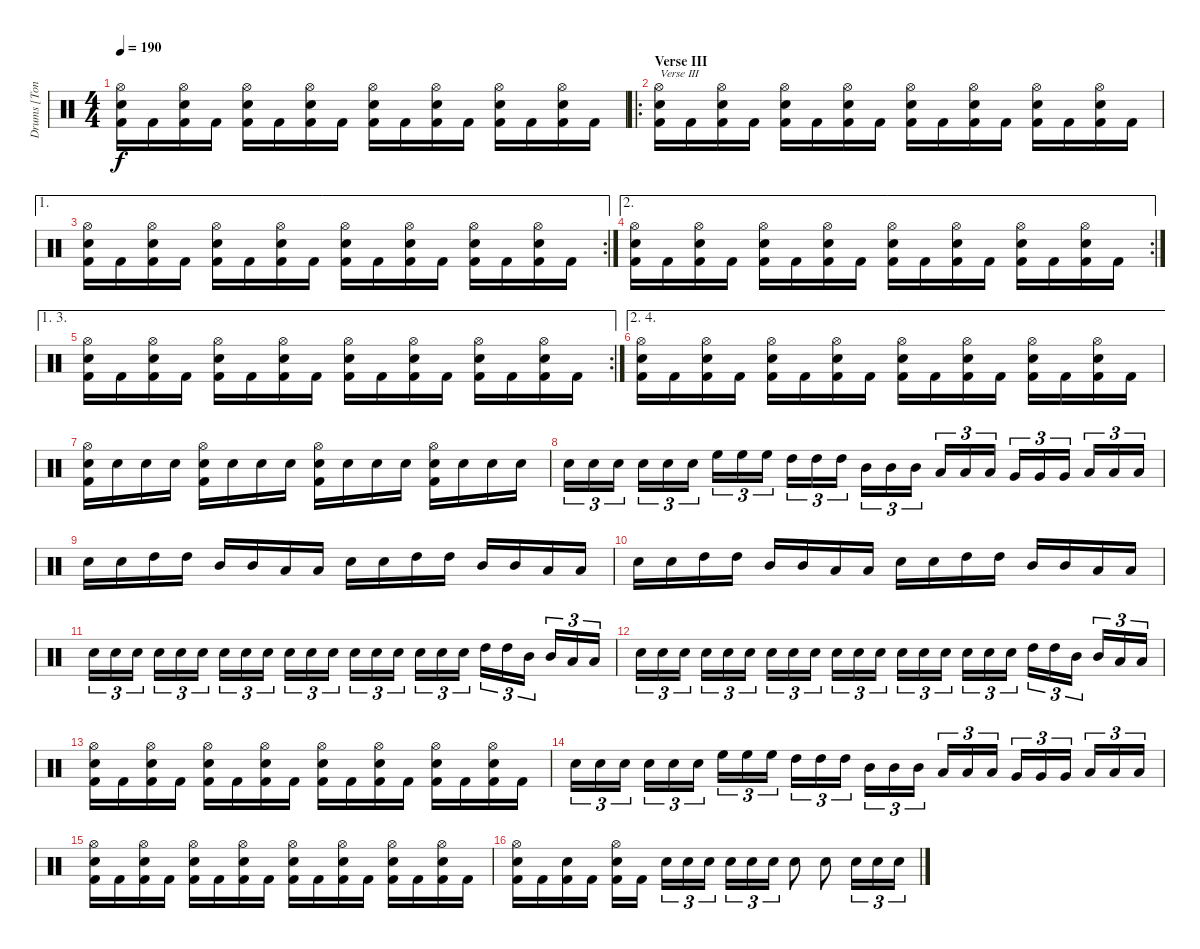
\track ("Drums [Tony Laureano]" "Drums [Ton") {instrument percussion}
\staff {score}
\articulation defaults
\ts (4 4)
\tempo 190
\clef neutral
\ks c
("Hi-Hat (open)" "Electric Snare (hit)" "Kick (hit) 2").16{dy f} "Kick (hit) 2".16 ("Hi-Hat (open)" "Electric Snare (hit)" "Kick (hit) 2").16 "Kick (hit) 2".16 ("Hi-Hat (open)" "Electric Snare (hit)" "Kick (hit) 2").16 "Kick (hit) 2".16 ("Hi-Hat (open)" "Electric Snare (hit)" "Kick (hit) 2").16 "Kick (hit) 2".16 ("Hi-Hat (open)" "Electric Snare (hit)" "Kick (hit) 2").16 "Kick (hit) 2".16 ("Hi-Hat (open)" "Electric Snare (hit)" "Kick (hit) 2").16 "Kick (hit) 2".16 ("Hi-Hat (open)" "Electric Snare (hit)" "Kick (hit) 2").16 "Kick (hit) 2".16 ("Hi-Hat (open)" "Electric Snare (hit)" "Kick (hit) 2").16 "Kick (hit) 2".16 |
\ro
\section ("" "Verse III")
("Hi-Hat (open)" "Electric Snare (hit)" "Kick (hit) 2").16{txt "Verse III"} "Kick (hit) 2".16 ("Hi-Hat (open)" "Electric Snare (hit)" "Kick (hit) 2").16 "Kick (hit) 2".16 ("Hi-Hat (open)" "Electric Snare (hit)" "Kick (hit) 2").16 "Kick (hit) 2".16 ("Hi-Hat (open)" "Electric Snare (hit)" "Kick (hit) 2").16 "Kick (hit) 2".16 ("Hi-Hat (open)" "Electric Snare (hit)" "Kick (hit) 2").16 "Kick (hit) 2".16 ("Hi-Hat (open)" "Electric Snare (hit)" "Kick (hit) 2").16 "Kick (hit) 2".16 ("Hi-Hat (open)" "Electric Snare (hit)" "Kick (hit) 2").16 "Kick (hit) 2".16 ("Hi-Hat (open)" "Electric Snare (hit)" "Kick (hit) 2").16 "Kick (hit) 2".16 |
\ae 1
\rc 2
("Hi-Hat (open)" "Electric Snare (hit)" "Kick (hit) 2").16 "Kick (hit) 2".16 ("Hi-Hat (open)" "Electric Snare (hit)" "Kick (hit) 2").16 "Kick (hit) 2".16 ("Hi-Hat (open)" "Electric Snare (hit)" "Kick (hit) 2").16 "Kick (hit) 2".16 ("Hi-Hat (open)" "Electric Snare (hit)" "Kick (hit) 2").16 "Kick (hit) 2".16 ("Hi-Hat (open)" "Electric Snare (hit)" "Kick (hit) 2").16 "Kick (hit) 2".16 ("Hi-Hat (open)" "Electric Snare (hit)" "Kick (hit) 2").16 "Kick (hit) 2".16 ("Hi-Hat (open)" "Electric Snare (hit)" "Kick (hit) 2").16 "Kick (hit) 2".16 ("Hi-Hat (open)" "Electric Snare (hit)" "Kick (hit) 2").16 "Kick (hit) 2".16 |
\ae 2
\rc 2
("Hi-Hat (open)" "Electric Snare (hit)" "Kick (hit) 2").16 "Kick (hit) 2".16 ("Hi-Hat (open)" "Electric Snare (hit)" "Kick (hit) 2").16 "Kick (hit) 2".16 ("Hi-Hat (open)" "Electric Snare (hit)" "Kick (hit) 2").16 "Kick (hit) 2".16 ("Hi-Hat (open)" "Electric Snare (hit)" "Kick (hit) 2").16 "Kick (hit) 2".16 ("Hi-Hat (open)" "Electric Snare (hit)" "Kick (hit) 2").16 "Kick (hit) 2".16 ("Hi-Hat (open)" "Electric Snare (hit)" "Kick (hit) 2").16 "Kick (hit) 2".16 ("Hi-Hat (open)" "Electric Snare (hit)" "Kick (hit) 2").16 "Kick (hit) 2".16 ("Hi-Hat (open)" "Electric Snare (hit)" "Kick (hit) 2").16 "Kick (hit) 2".16 |
\ae (1 3)
\rc 2
("Hi-Hat (open)" "Electric Snare (hit)" "Kick (hit) 2").16 "Kick (hit) 2".16 ("Hi-Hat (open)" "Electric Snare (hit)" "Kick (hit) 2").16 "Kick (hit) 2".16 ("Hi-Hat (open)" "Electric Snare (hit)" "Kick (hit) 2").16 "Kick (hit) 2".16 ("Hi-Hat (open)" "Electric Snare (hit)" "Kick (hit) 2").16 "Kick (hit) 2".16 ("Hi-Hat (open)" "Electric Snare (hit)" "Kick (hit) 2").16 "Kick (hit) 2".16 ("Hi-Hat (open)" "Electric Snare (hit)" "Kick (hit) 2").16 "Kick (hit) 2".16 ("Hi-Hat (open)" "Electric Snare (hit)" "Kick (hit) 2").16 "Kick (hit) 2".16 ("Hi-Hat (open)" "Electric Snare (hit)" "Kick (hit) 2").16 "Kick (hit) 2".16 |
\ae (2 4)
("Hi-Hat (open)" "Electric Snare (hit)" "Kick (hit) 2").16 "Kick (hit) 2".16 ("Hi-Hat (open)" "Electric Snare (hit)" "Kick (hit) 2").16 "Kick (hit) 2".16 ("Hi-Hat (open)" "Electric Snare (hit)" "Kick (hit) 2").16 "Kick (hit) 2".16 ("Hi-Hat (open)" "Electric Snare (hit)" "Kick (hit) 2").16 "Kick (hit) 2".16 ("Hi-Hat (open)" "Electric Snare (hit)" "Kick (hit) 2").16 "Kick (hit) 2".16 ("Hi-Hat (open)" "Electric Snare (hit)" "Kick (hit) 2").16 "Kick (hit) 2".16 ("Hi-Hat (open)" "Electric Snare (hit)" "Kick (hit) 2").16 "Kick (hit) 2".16 ("Hi-Hat (open)" "Electric Snare (hit)" "Kick (hit) 2").16 "Kick (hit) 2".16 |
("Hi-Hat (open)" "Electric Snare (hit)" "Kick (hit) 2").16 "Electric Snare (hit)".16 "Electric Snare (hit)".16 "Electric Snare (hit)".16 ("Hi-Hat (open)" "Electric Snare (hit)" "Kick (hit) 2").16 "Electric Snare (hit)".16 "Electric Snare (hit)".16 "Electric Snare (hit)".16 ("Hi-Hat (open)" "Electric Snare (hit)" "Kick (hit) 2").16 "Electric Snare (hit)".16 "Electric Snare (hit)".16 "Electric Snare (hit)".16 ("Hi-Hat (open)" "Electric Snare (hit)" "Kick (hit) 2").16 "Electric Snare (hit)".16 "Electric Snare (hit)".16 "Electric Snare (hit)".16 |
"Electric Snare (hit)".16{tu (3 2)} "Electric Snare (hit)".16{tu (3 2)} "Electric Snare (hit)".16{tu (3 2)} "Electric Snare (hit)".16{tu (3 2)} "Electric Snare (hit)".16{tu (3 2)} "Electric Snare (hit)".16{tu (3 2)} "High Floor Tom (hit)".16{tu (3 2)} "High Floor Tom (hit)".16{tu (3 2)} "High Floor Tom (hit)".16{tu (3 2)} "High Tom (hit)".16{tu (3 2)} "High Tom (hit)".16{tu (3 2)} "High Tom (hit)".16{tu (3 2)} "Mid Tom (hit)".16{tu (3 2)} "Mid Tom (hit)".16{tu (3 2)} "Mid Tom (hit)".16{tu (3 2)} "Low Tom (hit)".16{tu (3 2)} "Low Tom (hit)".16{tu (3 2)} "Low Tom (hit)".16{tu (3 2)} "Very Low Tom (hit)".16{tu (3 2)} "Very Low Tom (hit)".16{tu (3 2)} "Very Low Tom (hit)".16{tu (3 2)} "Low Floor Tom (hit)".16{tu (3 2)} "Low Floor Tom (hit)".16{tu (3 2)} "Low Floor Tom (hit)".16{tu (3 2)} |
"Electric Snare (hit)".16 "Electric Snare (hit)".16 "High Tom (hit)".16 "High Tom (hit)".16 "Mid Tom (hit)".16 "Mid Tom (hit)".16 "Low Tom (hit)".16 "Low Tom (hit)".16 "Electric Snare (hit)".16 "Electric Snare (hit)".16 "High Tom (hit)".16 "High Tom (hit)".16 "Mid Tom (hit)".16 "Mid Tom (hit)".16 "Low Tom (hit)".16 "Low Tom (hit)".16 |
"Electric Snare (hit)".16 "Electric Snare (hit)".16 "High Tom (hit)".16 "High Tom (hit)".16 "Mid Tom (hit)".16 "Mid Tom (hit)".16 "Low Tom (hit)".16 "Low Tom (hit)".16 "Electric Snare (hit)".16 "Electric Snare (hit)".16 "High Tom (hit)".16 "High Tom (hit)".16 "Mid Tom (hit)".16 "Mid Tom (hit)".16 "Low Tom (hit)".16 "Low Tom (hit)".16 |
"Electric Snare (hit)".16{tu (3 2)} "Electric Snare (hit)".16{tu (3 2)} "Electric Snare (hit)".16{tu (3 2)} "Electric Snare (hit)".16{tu (3 2)} "Electric Snare (hit)".16{tu (3 2)} "Electric Snare (hit)".16{tu (3 2)} "Electric Snare (hit)".16{tu (3 2)} "Electric Snare (hit)".16{tu (3 2)} "Electric Snare (hit)".16{tu (3 2)} "Electric Snare (hit)".16{tu (3 2)} "Electric Snare (hit)".16{tu (3 2)} "Electric Snare (hit)".16{tu (3 2)} "Electric Snare (hit)".16{tu (3 2)} "Electric Snare (hit)".16{tu (3 2)} "Electric Snare (hit)".16{tu (3 2)} "Electric Snare (hit)".16{tu (3 2)} "Electric Snare (hit)".16{tu (3 2)} "Electric Snare (hit)".16{tu (3 2)} "High Tom (hit)".16{tu (3 2)} "High Tom (hit)".16{tu (3 2)} "Mid Tom (hit)".16{tu (3 2)} "Mid Tom (hit)".16{tu (3 2)} "Low Tom (hit)".16{tu (3 2)} "Low Tom (hit)".16{tu (3 2)} |
"Electric Snare (hit)".16{tu (3 2)} "Electric Snare (hit)".16{tu (3 2)} "Electric Snare (hit)".16{tu (3 2)} "Electric Snare (hit)".16{tu (3 2)} "Electric Snare (hit)".16{tu (3 2)} "Electric Snare (hit)".16{tu (3 2)} "Electric Snare (hit)".16{tu (3 2)} "Electric Snare (hit)".16{tu (3 2)} "Electric Snare (hit)".16{tu (3 2)} "Electric Snare (hit)".16{tu (3 2)} "Electric Snare (hit)".16{tu (3 2)} "Electric Snare (hit)".16{tu (3 2)} "Electric Snare (hit)".16{tu (3 2)} "Electric Snare (hit)".16{tu (3 2)} "Electric Snare (hit)".16{tu (3 2)} "Electric Snare (hit)".16{tu (3 2)} "Electric Snare (hit)".16{tu (3 2)} "Electric Snare (hit)".16{tu (3 2)} "High Tom (hit)".16{tu (3 2)} "High Tom (hit)".16{tu (3 2)} "Mid Tom (hit)".16{tu (3 2)} "Mid Tom (hit)".16{tu (3 2)} "Low Tom (hit)".16{tu (3 2)} "Low Tom (hit)".16{tu (3 2)} |
("Hi-Hat (open)" "Electric Snare (hit)" "Kick (hit) 2").16 "Kick (hit) 2".16 ("Hi-Hat (open)" "Electric Snare (hit)" "Kick (hit) 2").16 "Kick (hit) 2".16 ("Hi-Hat (open)" "Electric Snare (hit)" "Kick (hit) 2").16 "Kick (hit) 2".16 ("Hi-Hat (open)" "Electric Snare (hit)" "Kick (hit) 2").16 "Kick (hit) 2".16 ("Hi-Hat (open)" "Electric Snare (hit)" "Kick (hit) 2").16 "Kick (hit) 2".16 ("Hi-Hat (open)" "Electric Snare (hit)" "Kick (hit) 2").16 "Kick (hit) 2".16 ("Hi-Hat (open)" "Electric Snare (hit)" "Kick (hit) 2").16 "Kick (hit) 2".16 ("Hi-Hat (open)" "Electric Snare (hit)" "Kick (hit) 2").16 "Kick (hit) 2".16 |
"Electric Snare (hit)".16{tu (3 2)} "Electric Snare (hit)".16{tu (3 2)} "Electric Snare (hit)".16{tu (3 2)} "Electric Snare (hit)".16{tu (3 2)} "Electric Snare (hit)".16{tu (3 2)} "Electric Snare (hit)".16{tu (3 2)} "High Floor Tom (hit)".16{tu (3 2)} "High Floor Tom (hit)".16{tu (3 2)} "High Floor Tom (hit)".16{tu (3 2)} "High Tom (hit)".16{tu (3 2)} "High Tom (hit)".16{tu (3 2)} "High Tom (hit)".16{tu (3 2)} "Mid Tom (hit)".16{tu (3 2)} "Mid Tom (hit)".16{tu (3 2)} "Mid Tom (hit)".16{tu (3 2)} "Low Tom (hit)".16{tu (3 2)} "Low Tom (hit)".16{tu (3 2)} "Low Tom (hit)".16{tu (3 2)} "Very Low Tom (hit)".16{tu (3 2)} "Very Low Tom (hit)".16{tu (3 2)} "Very Low Tom (hit)".16{tu (3 2)} "Low Floor Tom (hit)".16{tu (3 2)} "Low Floor Tom (hit)".16{tu (3 2)} "Low Floor Tom (hit)".16{tu (3 2)} |
("Hi-Hat (open)" "Electric Snare (hit)" "Kick (hit) 2").16 "Kick (hit) 2".16 ("Hi-Hat (open)" "Electric Snare (hit)" "Kick (hit) 2").16 "Kick (hit) 2".16 ("Hi-Hat (open)" "Electric Snare (hit)" "Kick (hit) 2").16 "Kick (hit) 2".16 ("Hi-Hat (open)" "Electric Snare (hit)" "Kick (hit) 2").16 "Kick (hit) 2".16 ("Hi-Hat (open)" "Electric Snare (hit)" "Kick (hit) 2").16 "Kick (hit) 2".16 ("Hi-Hat (open)" "Electric Snare (hit)" "Kick (hit) 2").16 "Kick (hit) 2".16 ("Hi-Hat (open)" "Electric Snare (hit)" "Kick (hit) 2").16 "Kick (hit) 2".16 ("Hi-Hat (open)" "Electric Snare (hit)" "Kick (hit) 2").16 "Kick (hit) 2".16 |
("Hi-Hat (open)" "Electric Snare (hit)" "Kick (hit) 2").16 "Kick (hit) 2".16 ("Electric Snare (hit)" "Kick (hit) 2").16 "Kick (hit) 2".16 ("Hi-Hat (open)" "Electric Snare (hit)" "Kick (hit) 2").16 "Kick (hit) 2".16 "Electric Snare (hit)".16{tu (3 2)} "Electric Snare (hit)".16{tu (3 2)} "Electric Snare (hit)".16{tu (3 2)} "Electric Snare (hit)".16{tu (3 2)} "Electric Snare (hit)".16{tu (3 2)} "Electric Snare (hit)".16{tu (3 2)} "Electric Snare (hit)".8 "Electric Snare (hit)".8 "Electric Snare (hit)".16{tu (3 2)} "Electric Snare (hit)".16{tu (3 2)} "Electric Snare (hit)".16{tu (3 2)}
